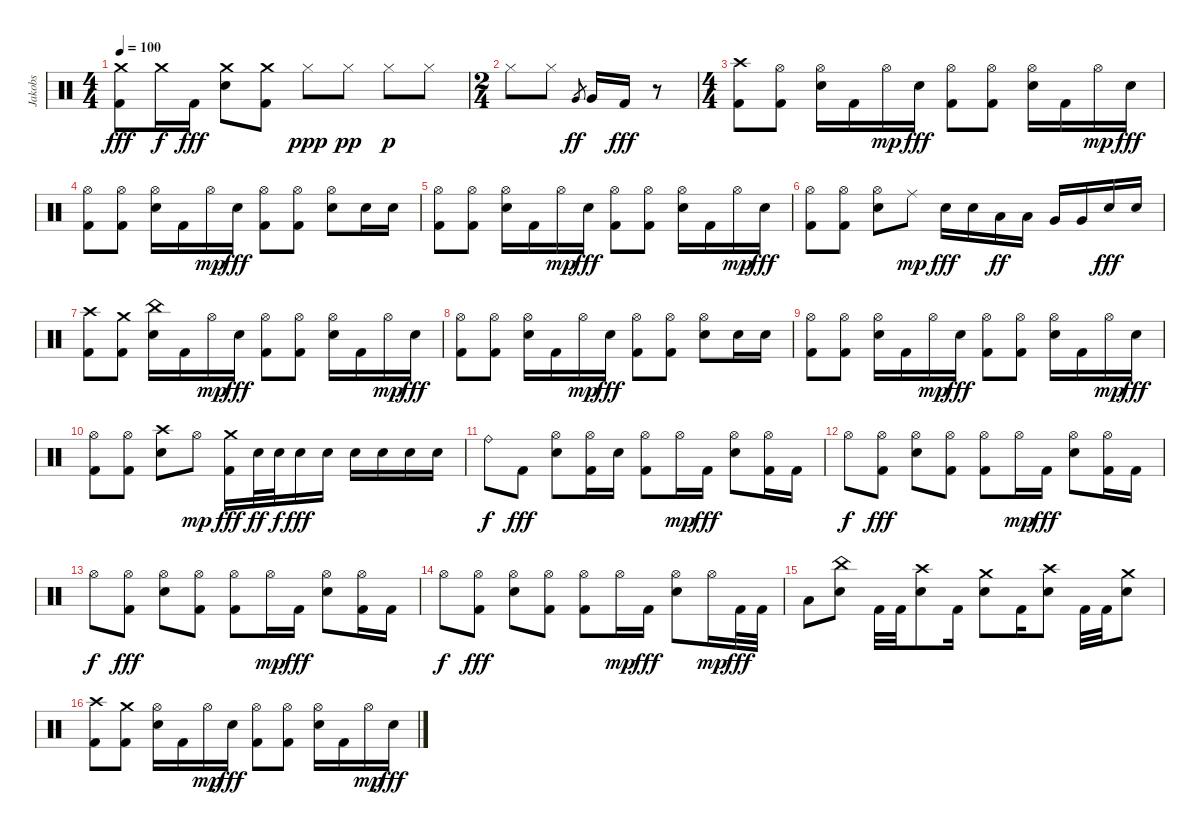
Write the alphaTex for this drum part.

\track ("Jakobs" "Jakobs") {instrument percussion}
\staff {score}
\articulation defaults
\ts (4 4)
\tempo 100
\clef neutral
\ks c
("Crash medium (hit)" "Kick (hit) 2").8{dy fff} "Crash medium (hit)".16{dy f} "Kick (hit) 2".16{dy fff} ("Crash medium (hit)" "Snare (hit) 2").8 ("Crash medium (hit)" "Kick (hit) 2").8 "Hi-Hat (closed)".8{dy ppp} "Hi-Hat (closed)".8{dy pp} "Hi-Hat (closed)".8{dy p} "Hi-Hat (closed)".8 |
\ts (2 4)
"Hi-Hat (closed)".8 "Hi-Hat (closed)".8 "Very Low Tom (hit)".8{gr dy ff} "Very Low Tom (hit)".16 "Kick (hit) 2".16{dy fff} r.8 |
\ts (4 4)
("Crash high (hit)" "Kick (hit) 2").8 ("Hi-Hat (open)" "Kick (hit) 2").8 ("Hi-Hat (open)" "Snare (hit) 2").16 "Kick (hit) 2".16 "Hi-Hat (open)".16{dy mp} "Snare (hit) 2".16{dy fff} ("Hi-Hat (open)" "Kick (hit) 2").8 ("Hi-Hat (open)" "Kick (hit) 2").8 ("Hi-Hat (open)" "Snare (hit) 2").16 "Kick (hit) 2".16 "Hi-Hat (open)".16{dy mp} "Snare (hit) 2".16{dy fff} |
("Hi-Hat (open)" "Kick (hit) 2").8 ("Hi-Hat (open)" "Kick (hit) 2").8 ("Hi-Hat (open)" "Snare (hit) 2").16 "Kick (hit) 2".16 "Hi-Hat (open)".16{dy mp} "Snare (hit) 2".16{dy fff} ("Hi-Hat (open)" "Kick (hit) 2").8 ("Hi-Hat (open)" "Kick (hit) 2").8 ("Hi-Hat (open)" "Snare (hit) 2").8 "Snare (hit) 2".16 "Snare (hit) 2".16 |
("Hi-Hat (open)" "Kick (hit) 2").8 ("Hi-Hat (open)" "Kick (hit) 2").8 ("Hi-Hat (open)" "Snare (hit) 2").16 "Kick (hit) 2".16 "Hi-Hat (open)".16{dy mp} "Snare (hit) 2".16{dy fff} ("Hi-Hat (open)" "Kick (hit) 2").8 ("Hi-Hat (open)" "Kick (hit) 2").8 ("Hi-Hat (open)" "Snare (hit) 2").16 "Kick (hit) 2".16 "Hi-Hat (open)".16{dy mp} "Snare (hit) 2".16{dy fff} |
("Hi-Hat (open)" "Kick (hit) 2").8 ("Hi-Hat (open)" "Kick (hit) 2").8 ("Hi-Hat (open)" "Snare (hit) 2").8 "Ride (middle)".8{dy mp} "Snare (hit) 2".16{dy fff} "Snare (hit) 2".16 "Low Tom (hit)".16{dy ff} "Low Tom (hit)".16 "Very Low Tom (hit)".16 "Very Low Tom (hit)".16 "Snare (hit) 2".16{dy fff} "Snare (hit) 2".16 |
("Crash high (hit)" "Kick (hit) 2").8 ("Crash medium (hit)" "Kick (hit) 2").8 ("China (hit)" "Snare (hit) 2").16 "Kick (hit) 2".16 "Hi-Hat (open)".16{dy mp} "Snare (hit) 2".16{dy fff} ("Hi-Hat (open)" "Kick (hit) 2").8 ("Hi-Hat (open)" "Kick (hit) 2").8 ("Hi-Hat (open)" "Snare (hit) 2").16 "Kick (hit) 2".16 "Hi-Hat (open)".16{dy mp} "Snare (hit) 2".16{dy fff} |
("Hi-Hat (open)" "Kick (hit) 2").8 ("Hi-Hat (open)" "Kick (hit) 2").8 ("Hi-Hat (open)" "Snare (hit) 2").16 "Kick (hit) 2".16 "Hi-Hat (open)".16{dy mp} "Snare (hit) 2".16{dy fff} ("Hi-Hat (open)" "Kick (hit) 2").8 ("Hi-Hat (open)" "Kick (hit) 2").8 ("Hi-Hat (open)" "Snare (hit) 2").8 "Snare (hit) 2".16 "Snare (hit) 2".16 |
("Hi-Hat (open)" "Kick (hit) 2").8 ("Hi-Hat (open)" "Kick (hit) 2").8 ("Hi-Hat (open)" "Snare (hit) 2").16 "Kick (hit) 2".16 "Hi-Hat (open)".16{dy mp} "Snare (hit) 2".16{dy fff} ("Hi-Hat (open)" "Kick (hit) 2").8 ("Hi-Hat (open)" "Kick (hit) 2").8 ("Hi-Hat (open)" "Snare (hit) 2").16 "Kick (hit) 2".16 "Hi-Hat (open)".16{dy mp} "Snare (hit) 2".16{dy fff} |
("Hi-Hat (open)" "Kick (hit) 2").8 ("Hi-Hat (open)" "Kick (hit) 2").8 ("Crash high (hit)" "Snare (hit) 2").8 "Hi-Hat (open)".8{dy mp} ("Crash medium (hit)" "Kick (hit) 2").16{dy fff} "Snare (hit) 2".32{dy ff} "Snare (hit) 2".32{dy f} "Snare (hit) 2".16{dy fff} "Snare (hit) 2".16 "Snare (hit) 2".16 "Snare (hit) 2".16 "Snare (hit) 2".16 "Snare (hit) 2".16 |
"Ride (bell)".8{dy f} "Kick (hit) 2".8{dy fff} ("Hi-Hat (open)" "Snare (hit) 2").8 ("Hi-Hat (open)" "Kick (hit) 2").16 "Snare (hit) 2".16 ("Hi-Hat (open)" "Kick (hit) 2").8 "Hi-Hat (open)".16{dy mp} "Kick (hit) 2".16{dy fff} ("Hi-Hat (open)" "Snare (hit) 2").8 ("Hi-Hat (open)" "Kick (hit) 2").16 "Kick (hit) 2".16 |
"Hi-Hat (open)".8{dy f} ("Hi-Hat (open)" "Kick (hit) 2").8{dy fff} ("Hi-Hat (open)" "Snare (hit) 2").8 ("Hi-Hat (open)" "Kick (hit) 2").8 ("Hi-Hat (open)" "Kick (hit) 2").8 "Hi-Hat (open)".16{dy mp} "Kick (hit) 2".16{dy fff} ("Hi-Hat (open)" "Snare (hit) 2").8 ("Hi-Hat (open)" "Kick (hit) 2").16 "Kick (hit) 2".16 |
"Hi-Hat (open)".8{dy f} ("Hi-Hat (open)" "Kick (hit) 2").8{dy fff} ("Hi-Hat (open)" "Snare (hit) 2").8 ("Hi-Hat (open)" "Kick (hit) 2").8 ("Hi-Hat (open)" "Kick (hit) 2").8 "Hi-Hat (open)".16{dy mp} "Kick (hit) 2".16{dy fff} ("Hi-Hat (open)" "Snare (hit) 2").8 ("Hi-Hat (open)" "Kick (hit) 2").16 "Kick (hit) 2".16 |
"Hi-Hat (open)".8{dy f} ("Hi-Hat (open)" "Kick (hit) 2").8{dy fff} ("Hi-Hat (open)" "Snare (hit) 2").8 ("Hi-Hat (open)" "Kick (hit) 2").8 ("Hi-Hat (open)" "Kick (hit) 2").8 "Hi-Hat (open)".16{dy mp} "Kick (hit) 2".16{dy fff} ("Hi-Hat (open)" "Snare (hit) 2").8 "Hi-Hat (open)".16{dy mp} "Kick (hit) 2".32{dy fff} "Kick (hit) 2".32 |
"Low Floor Tom (hit)".8 ("China (hit)" "Snare (hit) 2").8 "Kick (hit) 2".32 "Kick (hit) 2".32 ("Crash high (hit)" "Snare (hit) 2").8 "Kick (hit) 2".16 ("Crash medium (hit)" "Snare (hit) 2").8 "Kick (hit) 2".16 ("Crash high (hit)" "Snare (hit) 2").8 "Kick (hit) 2".32 "Kick (hit) 2".32 ("Crash medium (hit)" "Snare (hit) 2").8 |
("Crash high (hit)" "Kick (hit) 2").8 ("Crash medium (hit)" "Kick (hit) 2").8 ("Hi-Hat (open)" "Snare (hit) 2").16 "Kick (hit) 2".16 "Hi-Hat (open)".16{dy mp} "Snare (hit) 2".16{dy fff} ("Hi-Hat (open)" "Kick (hit) 2").8 ("Hi-Hat (open)" "Kick (hit) 2").8 ("Hi-Hat (open)" "Snare (hit) 2").16 "Kick (hit) 2".16 "Hi-Hat (open)".16{dy mp} "Snare (hit) 2".16{dy fff}
